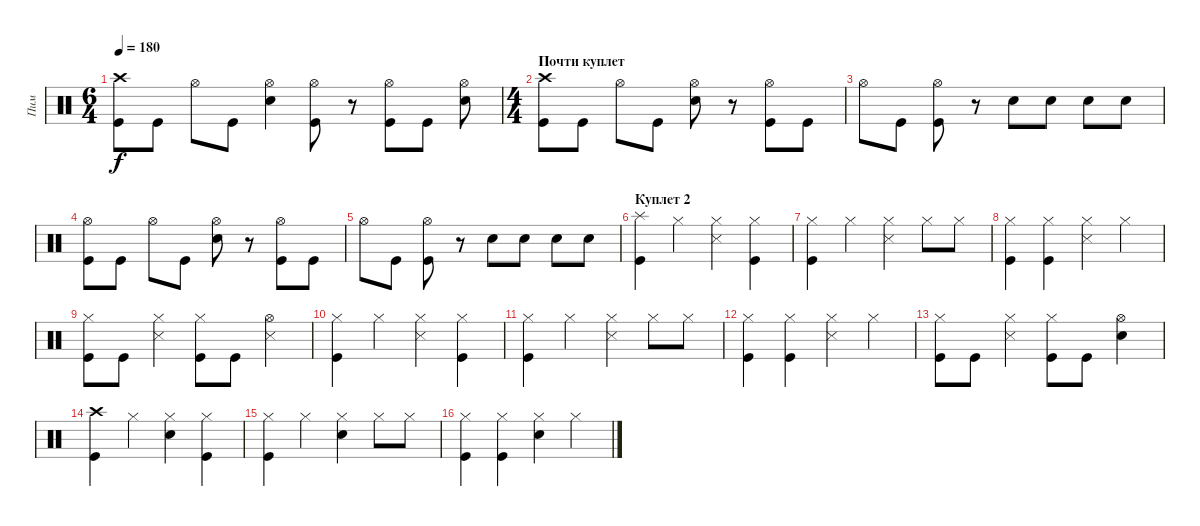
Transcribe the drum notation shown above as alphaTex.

\track ("Пим" "Пим") {instrument percussion}
\staff {score}
\articulation defaults
\ts (6 4)
\tempo 180
\clef neutral
\ks c
("Crash high (hit)" "Kick (hit)").8{dy f} "Kick (hit)".8 "Hi-Hat (open)".8 "Kick (hit)".8 ("Hi-Hat (open)" "Snare (hit) 2").4 ("Hi-Hat (open)" "Kick (hit)").8 r.8 ("Hi-Hat (open)" "Kick (hit)").8 "Kick (hit)".8 ("Hi-Hat (open)" "Snare (hit) 2").8 |
\ts (4 4)
\section ("" "Почти куплет")
("Crash high (hit)" "Kick (hit)").8 "Kick (hit)".8 "Hi-Hat (open)".8 "Kick (hit)".8 ("Hi-Hat (open)" "Snare (hit) 2").8 r.8 ("Hi-Hat (open)" "Kick (hit)").8 "Kick (hit)".8 |
"Hi-Hat (open)".8 "Kick (hit)".8 ("Hi-Hat (open)" "Kick (hit)").8 r.8 "Snare (hit) 2".8 "Snare (hit) 2".8 "Snare (hit) 2".8 "Snare (hit) 2".8 |
("Hi-Hat (open)" "Kick (hit)").8 "Kick (hit)".8 "Hi-Hat (open)".8 "Kick (hit)".8 ("Hi-Hat (open)" "Snare (hit) 2").8 r.8 ("Hi-Hat (open)" "Kick (hit)").8 "Kick (hit)".8 |
"Hi-Hat (open)".8 "Kick (hit)".8 ("Hi-Hat (open)" "Kick (hit)").8 r.8 "Snare (hit) 2".8 "Snare (hit) 2".8 "Snare (hit) 2".8 "Snare (hit) 2".8 |
\section ("" "Куплет 2")
("Splash (hit)" "Kick (hit)").4 "Hi-Hat (closed)".4 ("Hi-Hat (closed)" "Snare (side stick) 3").4 ("Hi-Hat (closed)" "Kick (hit)").4 |
("Hi-Hat (closed)" "Kick (hit)").4 "Hi-Hat (closed)".4 ("Hi-Hat (closed)" "Snare (side stick) 3").4 "Hi-Hat (closed)".8 "Hi-Hat (closed)".8 |
("Hi-Hat (closed)" "Kick (hit)").4 ("Hi-Hat (closed)" "Kick (hit)").4 ("Hi-Hat (closed)" "Snare (side stick) 3").4 "Hi-Hat (closed)".4 |
("Hi-Hat (closed)" "Kick (hit)").8 "Kick (hit)".8 ("Hi-Hat (closed)" "Snare (side stick) 3").4 ("Hi-Hat (closed)" "Kick (hit)").8 "Kick (hit)".8 ("Hi-Hat (open)" "Snare (side stick) 3").4 |
("Hi-Hat (closed)" "Kick (hit)").4 "Hi-Hat (closed)".4 ("Hi-Hat (closed)" "Snare (side stick) 3").4 ("Hi-Hat (closed)" "Kick (hit)").4 |
("Hi-Hat (closed)" "Kick (hit)").4 "Hi-Hat (closed)".4 ("Hi-Hat (closed)" "Snare (side stick) 3").4 "Hi-Hat (closed)".8 "Hi-Hat (closed)".8 |
("Hi-Hat (closed)" "Kick (hit)").4 ("Hi-Hat (closed)" "Kick (hit)").4 ("Hi-Hat (closed)" "Snare (side stick) 3").4 "Hi-Hat (closed)".4 |
("Hi-Hat (closed)" "Kick (hit)").8 "Kick (hit)".8 ("Hi-Hat (closed)" "Snare (side stick) 3").4 ("Hi-Hat (closed)" "Kick (hit)").8 "Kick (hit)".8 ("Hi-Hat (open)" "Snare (hit) 2").4 |
("Crash high (hit)" "Kick (hit)").4 "Hi-Hat (closed)".4 ("Hi-Hat (closed)" "Snare (hit) 2").4 ("Hi-Hat (closed)" "Kick (hit)").4 |
("Hi-Hat (closed)" "Kick (hit)").4 "Hi-Hat (closed)".4 ("Hi-Hat (closed)" "Snare (hit) 2").4 "Hi-Hat (closed)".8 "Hi-Hat (closed)".8 |
("Hi-Hat (closed)" "Kick (hit)").4 ("Hi-Hat (closed)" "Kick (hit)").4 ("Hi-Hat (closed)" "Snare (hit) 2").4 "Hi-Hat (closed)".4
